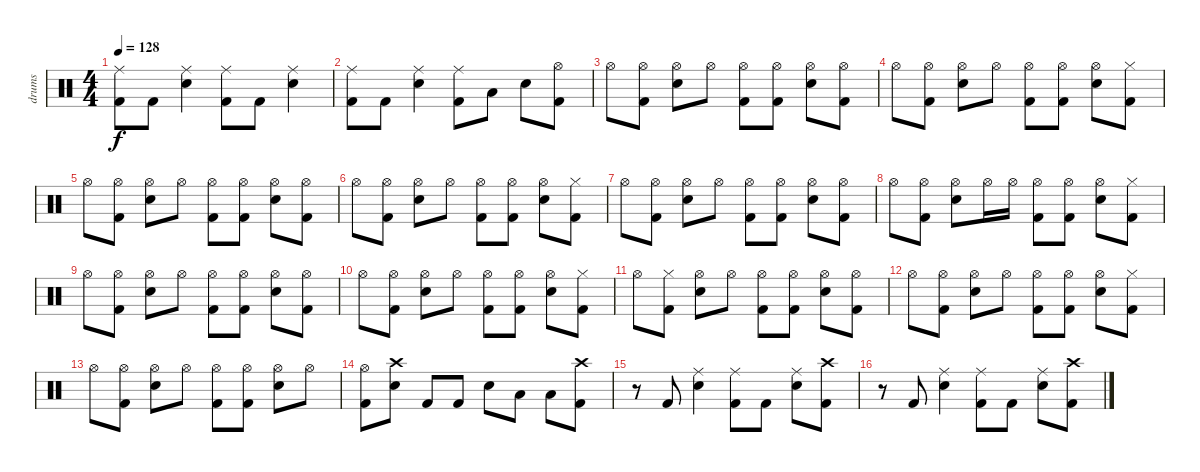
\track ("drums" "drums") {instrument percussion}
\staff {score}
\articulation defaults
\ts (4 4)
\tempo 128
\clef neutral
\ks c
("Ride (middle)" "Kick (hit) 2").8{dy f} "Kick (hit) 2".8 ("Ride (middle)" "Electric Snare (hit)").4 ("Ride (middle)" "Kick (hit) 2").8 "Kick (hit) 2".8 ("Ride (middle)" "Electric Snare (hit)").4 |
("Ride (middle)" "Kick (hit) 2").8 "Kick (hit) 2".8 ("Ride (middle)" "Electric Snare (hit)").4 ("Ride (middle)" "Kick (hit) 2").8 "Low Tom (hit)".8 "Electric Snare (hit)".8 ("Hi-Hat (open)" "Kick (hit) 2").8 |
"Hi-Hat (open)".8 ("Hi-Hat (open)" "Kick (hit) 2").8 ("Hi-Hat (open)" "Electric Snare (hit)").8 "Hi-Hat (open)".8 ("Hi-Hat (open)" "Kick (hit) 2").8 ("Hi-Hat (open)" "Kick (hit) 2").8 ("Hi-Hat (open)" "Electric Snare (hit)").8 ("Hi-Hat (open)" "Kick (hit) 2").8 |
"Hi-Hat (open)".8 ("Hi-Hat (open)" "Kick (hit) 2").8 ("Hi-Hat (open)" "Electric Snare (hit)").8 "Hi-Hat (open)".8 ("Hi-Hat (open)" "Kick (hit) 2").8 ("Hi-Hat (open)" "Kick (hit) 2").8 ("Hi-Hat (open)" "Electric Snare (hit)").8 ("Hi-Hat (closed)" "Kick (hit) 2").8 |
"Hi-Hat (open)".8 ("Hi-Hat (open)" "Kick (hit) 2").8 ("Hi-Hat (open)" "Electric Snare (hit)").8 "Hi-Hat (open)".8 ("Hi-Hat (open)" "Kick (hit) 2").8 ("Hi-Hat (open)" "Kick (hit) 2").8 ("Hi-Hat (open)" "Electric Snare (hit)").8 ("Hi-Hat (open)" "Kick (hit) 2").8 |
"Hi-Hat (open)".8 ("Hi-Hat (open)" "Kick (hit) 2").8 ("Hi-Hat (open)" "Electric Snare (hit)").8 "Hi-Hat (open)".8 ("Hi-Hat (open)" "Kick (hit) 2").8 ("Hi-Hat (open)" "Kick (hit) 2").8 ("Hi-Hat (open)" "Electric Snare (hit)").8 ("Hi-Hat (closed)" "Kick (hit) 2").8 |
"Hi-Hat (open)".8 ("Hi-Hat (open)" "Kick (hit) 2").8 ("Hi-Hat (open)" "Electric Snare (hit)").8 "Hi-Hat (open)".8 ("Hi-Hat (open)" "Kick (hit) 2").8 ("Hi-Hat (open)" "Kick (hit) 2").8 ("Hi-Hat (open)" "Electric Snare (hit)").8 ("Hi-Hat (open)" "Kick (hit) 2").8 |
"Hi-Hat (open)".8 ("Hi-Hat (open)" "Kick (hit) 2").8 ("Hi-Hat (open)" "Electric Snare (hit)").8 "Hi-Hat (open)".16 "Hi-Hat (open)".16 ("Hi-Hat (open)" "Kick (hit) 2").8 ("Hi-Hat (open)" "Kick (hit) 2").8 ("Hi-Hat (open)" "Electric Snare (hit)").8 ("Hi-Hat (closed)" "Kick (hit) 2").8 |
"Hi-Hat (open)".8 ("Hi-Hat (open)" "Kick (hit) 2").8 ("Hi-Hat (open)" "Electric Snare (hit)").8 "Hi-Hat (open)".8 ("Hi-Hat (open)" "Kick (hit) 2").8 ("Hi-Hat (open)" "Kick (hit) 2").8 ("Hi-Hat (open)" "Electric Snare (hit)").8 ("Hi-Hat (open)" "Kick (hit) 2").8 |
"Hi-Hat (open)".8 ("Hi-Hat (open)" "Kick (hit) 2").8 ("Hi-Hat (open)" "Electric Snare (hit)").8 "Hi-Hat (open)".8 ("Hi-Hat (open)" "Kick (hit) 2").8 ("Hi-Hat (open)" "Kick (hit) 2").8 ("Hi-Hat (open)" "Electric Snare (hit)").8 ("Hi-Hat (closed)" "Kick (hit) 2").8 |
"Hi-Hat (open)".8 ("Hi-Hat (closed)" "Kick (hit) 2").8 ("Hi-Hat (open)" "Electric Snare (hit)").8 "Hi-Hat (open)".8 ("Hi-Hat (open)" "Kick (hit) 2").8 ("Hi-Hat (open)" "Kick (hit) 2").8 ("Hi-Hat (open)" "Electric Snare (hit)").8 ("Hi-Hat (open)" "Kick (hit) 2").8 |
"Hi-Hat (open)".8 ("Hi-Hat (open)" "Kick (hit) 2").8 ("Hi-Hat (open)" "Electric Snare (hit)").8 "Hi-Hat (open)".8 ("Hi-Hat (open)" "Kick (hit) 2").8 ("Hi-Hat (open)" "Kick (hit) 2").8 ("Hi-Hat (open)" "Electric Snare (hit)").8 ("Hi-Hat (closed)" "Kick (hit) 2").8 |
"Hi-Hat (open)".8 ("Hi-Hat (open)" "Kick (hit) 2").8 ("Hi-Hat (open)" "Electric Snare (hit)").8 "Hi-Hat (open)".8 ("Hi-Hat (open)" "Kick (hit) 2").8 ("Hi-Hat (open)" "Kick (hit) 2").8 ("Hi-Hat (open)" "Electric Snare (hit)").8 "Hi-Hat (open)".8 |
("Hi-Hat (open)" "Kick (hit) 2").8 ("Crash high (hit)" "Electric Snare (hit)").8 "Kick (hit) 2".8 "Kick (hit) 2".8 "Electric Snare (hit)".8 "Low Tom (hit)".8 "Low Floor Tom (hit)".8 ("Crash high (hit)" "Kick (hit) 2").8 |
r.8 "Kick (hit) 2".8 ("Ride (middle)" "Electric Snare (hit)").4 ("Ride (middle)" "Kick (hit) 2").8 "Kick (hit) 2".8 ("Ride (middle)" "Electric Snare (hit)").8 ("Crash high (hit)" "Kick (hit) 2").8 |
r.8 "Kick (hit) 2".8 ("Ride (middle)" "Electric Snare (hit)").4 ("Ride (middle)" "Kick (hit) 2").8 "Kick (hit) 2".8 ("Ride (middle)" "Electric Snare (hit)").8 ("Crash high (hit)" "Kick (hit) 2").8
